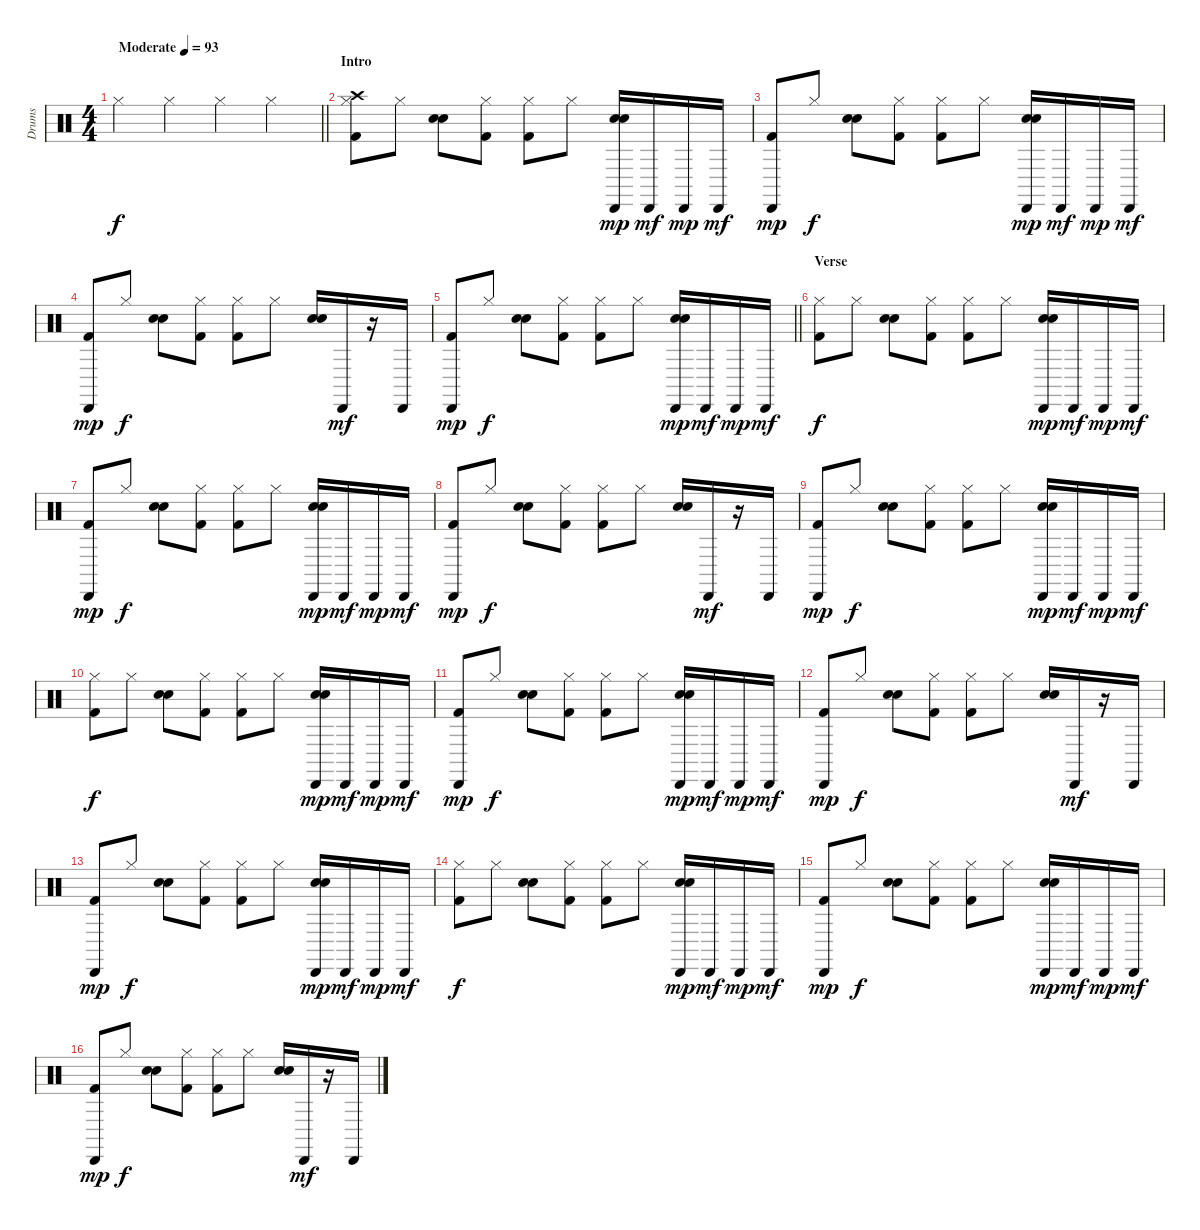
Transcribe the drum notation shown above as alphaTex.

\track ("Drums" "Drums") {instrument percussion}
\staff {score}
\articulation defaults
\ts (4 4)
\tempo (93 "Moderate")
\clef neutral
\barLineRight lightlight
\ks c "Hi-Hat (closed)".4{dy f} "Hi-Hat (closed)".4 "Hi-Hat (closed)".4 "Hi-Hat (closed)".4
|
\section ("" "Intro")
("Crash high (hit)" "Kick (hit) 2" "Hi-Hat (closed)").8 "Hi-Hat (closed)".8 ("Hand Clap (hit)" "Snare (hit) 2").8 ("Kick (hit) 2" "Hi-Hat (closed)").8 ("Kick (hit) 2" "Hi-Hat (closed)").8 "Hi-Hat (closed)".8 ("Cabasa (hit)" "Snare (hit) 2" "Hand Clap (hit)").16{dy mp} "Cabasa (hit)".16{dy mf} "Cabasa (hit)".16{dy mp} "Cabasa (hit)".16{dy mf} |
("Kick (hit) 2" "Cabasa (hit)").8{dy mp} "Hi-Hat (closed)".8{dy f} ("Hand Clap (hit)" "Snare (hit) 2").8 ("Kick (hit) 2" "Hi-Hat (closed)").8 ("Hi-Hat (closed)" "Kick (hit) 2").8 "Hi-Hat (closed)".8 ("Hand Clap (hit)" "Snare (hit) 2" "Cabasa (hit)").16{dy mp} "Cabasa (hit)".16{dy mf} "Cabasa (hit)".16{dy mp} "Cabasa (hit)".16{dy mf} |
("Cabasa (hit)" "Kick (hit) 2").8{dy mp} "Hi-Hat (closed)".8{dy f} ("Hand Clap (hit)" "Snare (hit) 2").8 ("Hi-Hat (closed)" "Kick (hit) 2").8 ("Hi-Hat (closed)" "Kick (hit) 2").8 "Hi-Hat (closed)".8 ("Snare (hit) 2" "Hand Clap (hit)").16 "Cabasa (hit)".16{dy mf} r.16 "Cabasa (hit)".16 |
\barLineRight lightlight
("Kick (hit) 2" "Cabasa (hit)").8{dy mp} "Hi-Hat (closed)".8{dy f} ("Hand Clap (hit)" "Snare (hit) 2").8 ("Kick (hit) 2" "Hi-Hat (closed)").8 ("Hi-Hat (closed)" "Kick (hit) 2").8 "Hi-Hat (closed)".8 ("Hand Clap (hit)" "Cabasa (hit)" "Snare (hit) 2").16{dy mp} "Cabasa (hit)".16{dy mf} "Cabasa (hit)".16{dy mp} "Cabasa (hit)".16{dy mf} |
\section ("" "Verse")
("Hi-Hat (closed)" "Kick (hit) 2").8{dy f} "Hi-Hat (closed)".8 ("Snare (hit) 2" "Hand Clap (hit)").8 ("Kick (hit) 2" "Hi-Hat (closed)").8 ("Kick (hit) 2" "Hi-Hat (closed)").8 "Hi-Hat (closed)".8 ("Cabasa (hit)" "Hand Clap (hit)" "Snare (hit) 2").16{dy mp} "Cabasa (hit)".16{dy mf} "Cabasa (hit)".16{dy mp} "Cabasa (hit)".16{dy mf} |
("Kick (hit) 2" "Cabasa (hit)").8{dy mp} "Hi-Hat (closed)".8{dy f} ("Hand Clap (hit)" "Snare (hit) 2").8 ("Kick (hit) 2" "Hi-Hat (closed)").8 ("Kick (hit) 2" "Hi-Hat (closed)").8 "Hi-Hat (closed)".8 ("Snare (hit) 2" "Hand Clap (hit)" "Cabasa (hit)").16{dy mp} "Cabasa (hit)".16{dy mf} "Cabasa (hit)".16{dy mp} "Cabasa (hit)".16{dy mf} |
("Cabasa (hit)" "Kick (hit) 2").8{dy mp} "Hi-Hat (closed)".8{dy f} ("Snare (hit) 2" "Hand Clap (hit)").8 ("Hi-Hat (closed)" "Kick (hit) 2").8 ("Hi-Hat (closed)" "Kick (hit) 2").8 "Hi-Hat (closed)".8 ("Snare (hit) 2" "Hand Clap (hit)").16 "Cabasa (hit)".16{dy mf} r.16 "Cabasa (hit)".16 |
("Kick (hit) 2" "Cabasa (hit)").8{dy mp} "Hi-Hat (closed)".8{dy f} ("Snare (hit) 2" "Hand Clap (hit)").8 ("Kick (hit) 2" "Hi-Hat (closed)").8 ("Kick (hit) 2" "Hi-Hat (closed)").8 "Hi-Hat (closed)".8 ("Snare (hit) 2" "Hand Clap (hit)" "Cabasa (hit)").16{dy mp} "Cabasa (hit)".16{dy mf} "Cabasa (hit)".16{dy mp} "Cabasa (hit)".16{dy mf} |
("Kick (hit) 2" "Hi-Hat (closed)").8{dy f} "Hi-Hat (closed)".8 ("Snare (hit) 2" "Hand Clap (hit)").8 ("Hi-Hat (closed)" "Kick (hit) 2").8 ("Hi-Hat (closed)" "Kick (hit) 2").8 "Hi-Hat (closed)".8 ("Cabasa (hit)" "Snare (hit) 2" "Hand Clap (hit)").16{dy mp} "Cabasa (hit)".16{dy mf} "Cabasa (hit)".16{dy mp} "Cabasa (hit)".16{dy mf} |
("Kick (hit) 2" "Cabasa (hit)").8{dy mp} "Hi-Hat (closed)".8{dy f} ("Hand Clap (hit)" "Snare (hit) 2").8 ("Kick (hit) 2" "Hi-Hat (closed)").8 ("Kick (hit) 2" "Hi-Hat (closed)").8 "Hi-Hat (closed)".8 ("Cabasa (hit)" "Snare (hit) 2" "Hand Clap (hit)").16{dy mp} "Cabasa (hit)".16{dy mf} "Cabasa (hit)".16{dy mp} "Cabasa (hit)".16{dy mf} |
("Cabasa (hit)" "Kick (hit) 2").8{dy mp} "Hi-Hat (closed)".8{dy f} ("Snare (hit) 2" "Hand Clap (hit)").8 ("Hi-Hat (closed)" "Kick (hit) 2").8 ("Hi-Hat (closed)" "Kick (hit) 2").8 "Hi-Hat (closed)".8 ("Hand Clap (hit)" "Snare (hit) 2").16 "Cabasa (hit)".16{dy mf} r.16 "Cabasa (hit)".16 |
("Kick (hit) 2" "Cabasa (hit)").8{dy mp} "Hi-Hat (closed)".8{dy f} ("Hand Clap (hit)" "Snare (hit) 2").8 ("Hi-Hat (closed)" "Kick (hit) 2").8 ("Kick (hit) 2" "Hi-Hat (closed)").8 "Hi-Hat (closed)".8 ("Hand Clap (hit)" "Snare (hit) 2" "Cabasa (hit)").16{dy mp} "Cabasa (hit)".16{dy mf} "Cabasa (hit)".16{dy mp} "Cabasa (hit)".16{dy mf} |
("Kick (hit) 2" "Hi-Hat (closed)").8{dy f} "Hi-Hat (closed)".8 ("Hand Clap (hit)" "Snare (hit) 2").8 ("Kick (hit) 2" "Hi-Hat (closed)").8 ("Hi-Hat (closed)" "Kick (hit) 2").8 "Hi-Hat (closed)".8 ("Snare (hit) 2" "Cabasa (hit)" "Hand Clap (hit)").16{dy mp} "Cabasa (hit)".16{dy mf} "Cabasa (hit)".16{dy mp} "Cabasa (hit)".16{dy mf} |
("Kick (hit) 2" "Cabasa (hit)").8{dy mp} "Hi-Hat (closed)".8{dy f} ("Hand Clap (hit)" "Snare (hit) 2").8 ("Kick (hit) 2" "Hi-Hat (closed)").8 ("Hi-Hat (closed)" "Kick (hit) 2").8 "Hi-Hat (closed)".8 ("Hand Clap (hit)" "Cabasa (hit)" "Snare (hit) 2").16{dy mp} "Cabasa (hit)".16{dy mf} "Cabasa (hit)".16{dy mp} "Cabasa (hit)".16{dy mf} |
("Kick (hit) 2" "Cabasa (hit)").8{dy mp} "Hi-Hat (closed)".8{dy f} ("Hand Clap (hit)" "Snare (hit) 2").8 ("Hi-Hat (closed)" "Kick (hit) 2").8 ("Hi-Hat (closed)" "Kick (hit) 2").8 "Hi-Hat (closed)".8 ("Hand Clap (hit)" "Snare (hit) 2").16 "Cabasa (hit)".16{dy mf} r.16 "Cabasa (hit)".16
